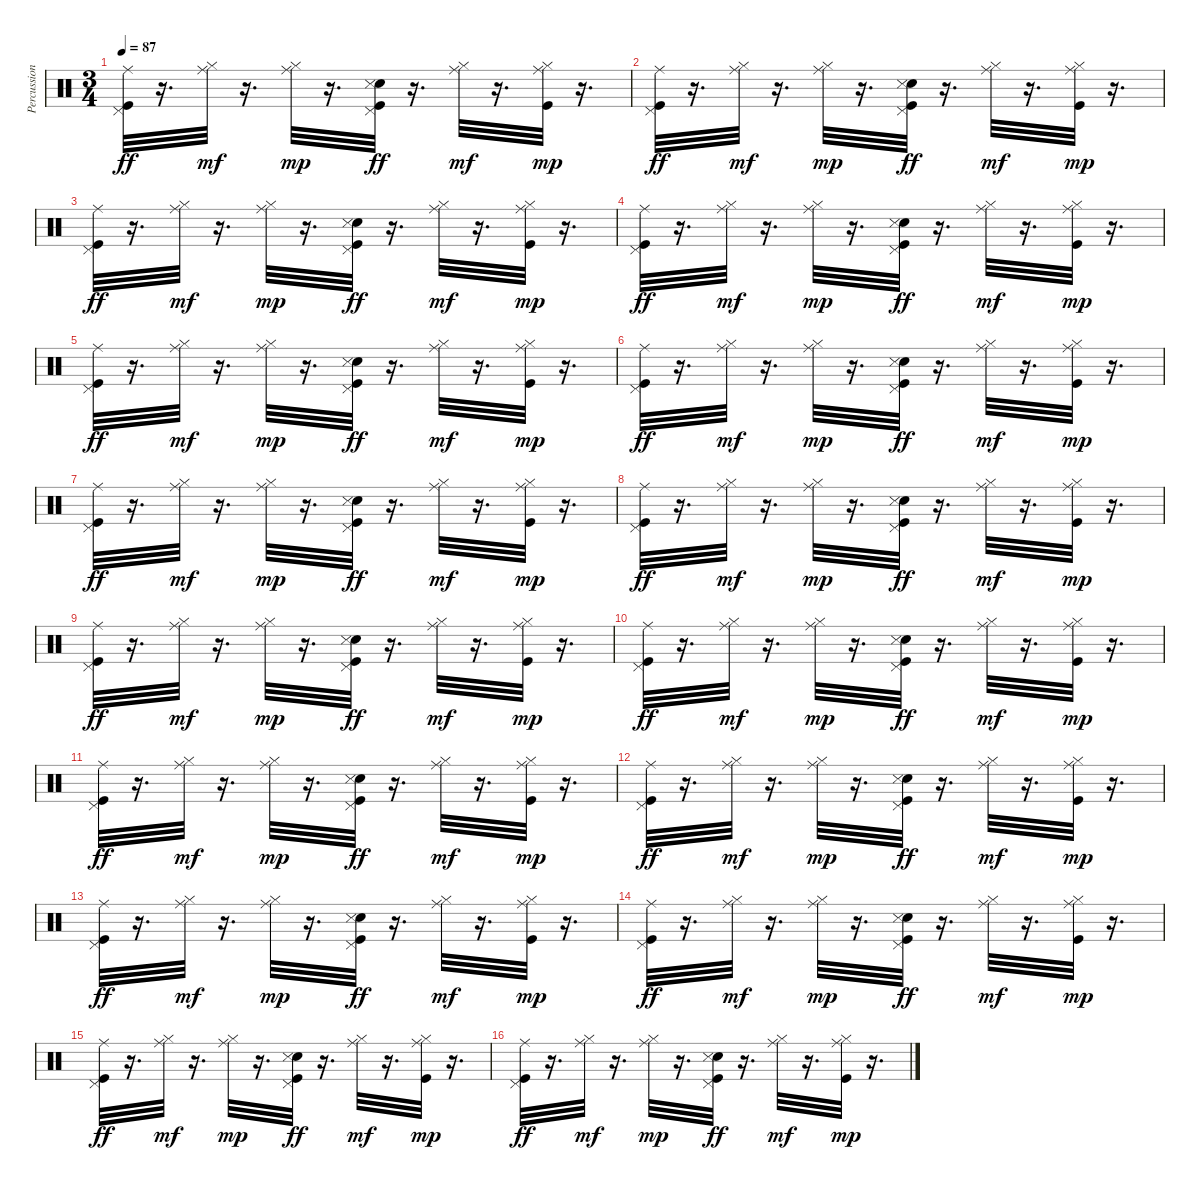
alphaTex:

\track ("Percussion" "Percussion") {instrument percussion}
\staff {score}
\articulation defaults
\ts (3 4)
\tempo 87
\clef neutral
\ks c
("Kick (hit)" "Ride (middle)" "Pedal Hi-Hat (hit)").32{dy ff} r.16{d} ("Hi-Hat (closed)" "Ride (middle)").32{dy mf} r.16{d} ("Hi-Hat (closed)" "Ride (middle)").32{dy mp} r.16{d} ("Kick (hit)" "Pedal Hi-Hat (hit)" "Electric Snare (hit)" "Snare (side stick) 3").32{dy ff} r.16{d} ("Hi-Hat (closed)" "Ride (middle)").32{dy mf} r.16{d} ("Hi-Hat (closed)" "Ride (middle)" "Kick (hit)").32{dy mp} r.16{d} |
("Kick (hit)" "Ride (middle)" "Pedal Hi-Hat (hit)").32{dy ff} r.16{d} ("Hi-Hat (closed)" "Ride (middle)").32{dy mf} r.16{d} ("Hi-Hat (closed)" "Ride (middle)").32{dy mp} r.16{d} ("Kick (hit)" "Pedal Hi-Hat (hit)" "Electric Snare (hit)" "Snare (side stick) 3").32{dy ff} r.16{d} ("Hi-Hat (closed)" "Ride (middle)").32{dy mf} r.16{d} ("Hi-Hat (closed)" "Ride (middle)" "Kick (hit)").32{dy mp} r.16{d} |
("Kick (hit)" "Ride (middle)" "Pedal Hi-Hat (hit)").32{dy ff} r.16{d} ("Hi-Hat (closed)" "Ride (middle)").32{dy mf} r.16{d} ("Hi-Hat (closed)" "Ride (middle)").32{dy mp} r.16{d} ("Kick (hit)" "Pedal Hi-Hat (hit)" "Electric Snare (hit)" "Snare (side stick) 3").32{dy ff} r.16{d} ("Hi-Hat (closed)" "Ride (middle)").32{dy mf} r.16{d} ("Hi-Hat (closed)" "Ride (middle)" "Kick (hit)").32{dy mp} r.16{d} |
("Kick (hit)" "Ride (middle)" "Pedal Hi-Hat (hit)").32{dy ff} r.16{d} ("Hi-Hat (closed)" "Ride (middle)").32{dy mf} r.16{d} ("Hi-Hat (closed)" "Ride (middle)").32{dy mp} r.16{d} ("Kick (hit)" "Pedal Hi-Hat (hit)" "Electric Snare (hit)" "Snare (side stick) 3").32{dy ff} r.16{d} ("Hi-Hat (closed)" "Ride (middle)").32{dy mf} r.16{d} ("Hi-Hat (closed)" "Ride (middle)" "Kick (hit)").32{dy mp} r.16{d} |
("Kick (hit)" "Ride (middle)" "Pedal Hi-Hat (hit)").32{dy ff} r.16{d} ("Hi-Hat (closed)" "Ride (middle)").32{dy mf} r.16{d} ("Hi-Hat (closed)" "Ride (middle)").32{dy mp} r.16{d} ("Kick (hit)" "Pedal Hi-Hat (hit)" "Electric Snare (hit)" "Snare (side stick) 3").32{dy ff} r.16{d} ("Hi-Hat (closed)" "Ride (middle)").32{dy mf} r.16{d} ("Hi-Hat (closed)" "Ride (middle)" "Kick (hit)").32{dy mp} r.16{d} |
("Kick (hit)" "Ride (middle)" "Pedal Hi-Hat (hit)").32{dy ff} r.16{d} ("Hi-Hat (closed)" "Ride (middle)").32{dy mf} r.16{d} ("Hi-Hat (closed)" "Ride (middle)").32{dy mp} r.16{d} ("Kick (hit)" "Pedal Hi-Hat (hit)" "Electric Snare (hit)" "Snare (side stick) 3").32{dy ff} r.16{d} ("Hi-Hat (closed)" "Ride (middle)").32{dy mf} r.16{d} ("Hi-Hat (closed)" "Ride (middle)" "Kick (hit)").32{dy mp} r.16{d} |
("Kick (hit)" "Ride (middle)" "Pedal Hi-Hat (hit)").32{dy ff} r.16{d} ("Hi-Hat (closed)" "Ride (middle)").32{dy mf} r.16{d} ("Hi-Hat (closed)" "Ride (middle)").32{dy mp} r.16{d} ("Kick (hit)" "Pedal Hi-Hat (hit)" "Electric Snare (hit)" "Snare (side stick) 3").32{dy ff} r.16{d} ("Hi-Hat (closed)" "Ride (middle)").32{dy mf} r.16{d} ("Hi-Hat (closed)" "Ride (middle)" "Kick (hit)").32{dy mp} r.16{d} |
("Kick (hit)" "Ride (middle)" "Pedal Hi-Hat (hit)").32{dy ff} r.16{d} ("Hi-Hat (closed)" "Ride (middle)").32{dy mf} r.16{d} ("Hi-Hat (closed)" "Ride (middle)").32{dy mp} r.16{d} ("Kick (hit)" "Pedal Hi-Hat (hit)" "Electric Snare (hit)" "Snare (side stick) 3").32{dy ff} r.16{d} ("Hi-Hat (closed)" "Ride (middle)").32{dy mf} r.16{d} ("Hi-Hat (closed)" "Ride (middle)" "Kick (hit)").32{dy mp} r.16{d} |
("Kick (hit)" "Ride (middle)" "Pedal Hi-Hat (hit)").32{dy ff} r.16{d} ("Hi-Hat (closed)" "Ride (middle)").32{dy mf} r.16{d} ("Hi-Hat (closed)" "Ride (middle)").32{dy mp} r.16{d} ("Kick (hit)" "Pedal Hi-Hat (hit)" "Electric Snare (hit)" "Snare (side stick) 3").32{dy ff} r.16{d} ("Hi-Hat (closed)" "Ride (middle)").32{dy mf} r.16{d} ("Hi-Hat (closed)" "Ride (middle)" "Kick (hit)").32{dy mp} r.16{d} |
("Kick (hit)" "Ride (middle)" "Pedal Hi-Hat (hit)").32{dy ff} r.16{d} ("Hi-Hat (closed)" "Ride (middle)").32{dy mf} r.16{d} ("Hi-Hat (closed)" "Ride (middle)").32{dy mp} r.16{d} ("Kick (hit)" "Pedal Hi-Hat (hit)" "Electric Snare (hit)" "Snare (side stick) 3").32{dy ff} r.16{d} ("Hi-Hat (closed)" "Ride (middle)").32{dy mf} r.16{d} ("Hi-Hat (closed)" "Ride (middle)" "Kick (hit)").32{dy mp} r.16{d} |
("Kick (hit)" "Ride (middle)" "Pedal Hi-Hat (hit)").32{dy ff} r.16{d} ("Hi-Hat (closed)" "Ride (middle)").32{dy mf} r.16{d} ("Hi-Hat (closed)" "Ride (middle)").32{dy mp} r.16{d} ("Kick (hit)" "Pedal Hi-Hat (hit)" "Electric Snare (hit)" "Snare (side stick) 3").32{dy ff} r.16{d} ("Hi-Hat (closed)" "Ride (middle)").32{dy mf} r.16{d} ("Hi-Hat (closed)" "Ride (middle)" "Kick (hit)").32{dy mp} r.16{d} |
("Kick (hit)" "Ride (middle)" "Pedal Hi-Hat (hit)").32{dy ff} r.16{d} ("Hi-Hat (closed)" "Ride (middle)").32{dy mf} r.16{d} ("Hi-Hat (closed)" "Ride (middle)").32{dy mp} r.16{d} ("Kick (hit)" "Pedal Hi-Hat (hit)" "Electric Snare (hit)" "Snare (side stick) 3").32{dy ff} r.16{d} ("Hi-Hat (closed)" "Ride (middle)").32{dy mf} r.16{d} ("Hi-Hat (closed)" "Ride (middle)" "Kick (hit)").32{dy mp} r.16{d} |
("Kick (hit)" "Ride (middle)" "Pedal Hi-Hat (hit)").32{dy ff} r.16{d} ("Hi-Hat (closed)" "Ride (middle)").32{dy mf} r.16{d} ("Hi-Hat (closed)" "Ride (middle)").32{dy mp} r.16{d} ("Kick (hit)" "Pedal Hi-Hat (hit)" "Electric Snare (hit)" "Snare (side stick) 3").32{dy ff} r.16{d} ("Hi-Hat (closed)" "Ride (middle)").32{dy mf} r.16{d} ("Hi-Hat (closed)" "Ride (middle)" "Kick (hit)").32{dy mp} r.16{d} |
("Kick (hit)" "Ride (middle)" "Pedal Hi-Hat (hit)").32{dy ff} r.16{d} ("Hi-Hat (closed)" "Ride (middle)").32{dy mf} r.16{d} ("Hi-Hat (closed)" "Ride (middle)").32{dy mp} r.16{d} ("Kick (hit)" "Pedal Hi-Hat (hit)" "Electric Snare (hit)" "Snare (side stick) 3").32{dy ff} r.16{d} ("Hi-Hat (closed)" "Ride (middle)").32{dy mf} r.16{d} ("Hi-Hat (closed)" "Ride (middle)" "Kick (hit)").32{dy mp} r.16{d} |
("Kick (hit)" "Ride (middle)" "Pedal Hi-Hat (hit)").32{dy ff} r.16{d} ("Hi-Hat (closed)" "Ride (middle)").32{dy mf} r.16{d} ("Hi-Hat (closed)" "Ride (middle)").32{dy mp} r.16{d} ("Kick (hit)" "Pedal Hi-Hat (hit)" "Electric Snare (hit)" "Snare (side stick) 3").32{dy ff} r.16{d} ("Hi-Hat (closed)" "Ride (middle)").32{dy mf} r.16{d} ("Hi-Hat (closed)" "Ride (middle)" "Kick (hit)").32{dy mp} r.16{d} |
("Kick (hit)" "Ride (middle)" "Pedal Hi-Hat (hit)").32{dy ff} r.16{d} ("Hi-Hat (closed)" "Ride (middle)").32{dy mf} r.16{d} ("Hi-Hat (closed)" "Ride (middle)").32{dy mp} r.16{d} ("Kick (hit)" "Pedal Hi-Hat (hit)" "Electric Snare (hit)" "Snare (side stick) 3").32{dy ff} r.16{d} ("Hi-Hat (closed)" "Ride (middle)").32{dy mf} r.16{d} ("Hi-Hat (closed)" "Ride (middle)" "Kick (hit)").32{dy mp} r.16{d}
